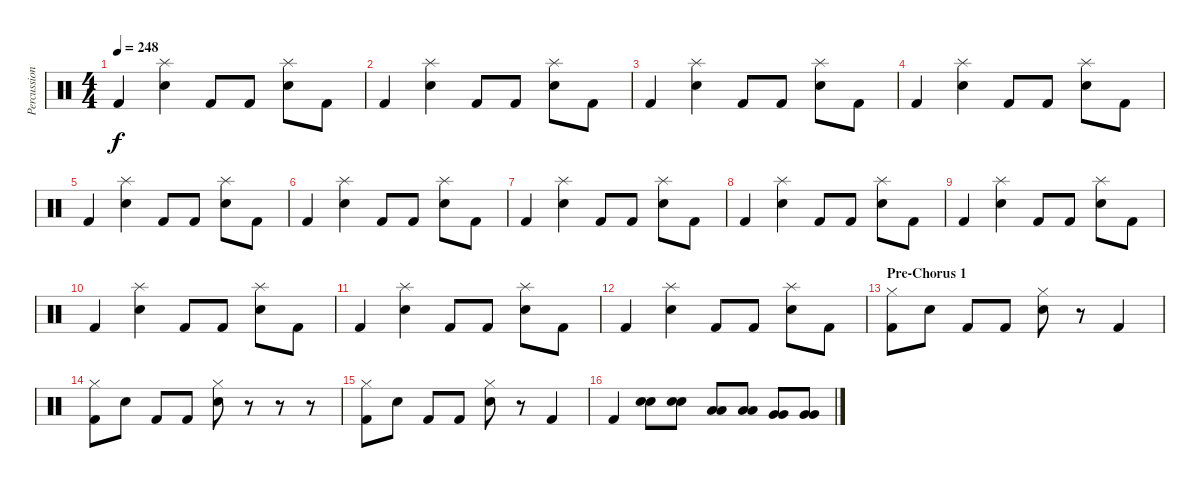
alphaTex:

\track ("Percussion" "Percussion") {instrument percussion}
\staff {score}
\articulation defaults
\ts (4 4)
\tempo 248
\clef neutral
\ks c "Kick (hit) 2".4{dy f}
("Splash (hit)" "Snare (hit) 2").4 "Kick (hit) 2".8 "Kick (hit) 2".8 ("Splash (hit)" "Snare (hit) 2").8 "Kick (hit) 2".8 |
"Kick (hit) 2".4 ("Splash (hit)" "Snare (hit) 2").4 "Kick (hit) 2".8 "Kick (hit) 2".8 ("Splash (hit)" "Snare (hit) 2").8 "Kick (hit) 2".8 |
"Kick (hit) 2".4 ("Splash (hit)" "Snare (hit) 2").4 "Kick (hit) 2".8 "Kick (hit) 2".8 ("Splash (hit)" "Snare (hit) 2").8 "Kick (hit) 2".8 |
"Kick (hit) 2".4 ("Splash (hit)" "Snare (hit) 2").4 "Kick (hit) 2".8 "Kick (hit) 2".8 ("Splash (hit)" "Snare (hit) 2").8 "Kick (hit) 2".8 |
"Kick (hit) 2".4 ("Splash (hit)" "Snare (hit) 2").4 "Kick (hit) 2".8 "Kick (hit) 2".8 ("Splash (hit)" "Snare (hit) 2").8 "Kick (hit) 2".8 |
"Kick (hit) 2".4 ("Splash (hit)" "Snare (hit) 2").4 "Kick (hit) 2".8 "Kick (hit) 2".8 ("Splash (hit)" "Snare (hit) 2").8 "Kick (hit) 2".8 |
"Kick (hit) 2".4 ("Splash (hit)" "Snare (hit) 2").4 "Kick (hit) 2".8 "Kick (hit) 2".8 ("Splash (hit)" "Snare (hit) 2").8 "Kick (hit) 2".8 |
"Kick (hit) 2".4 ("Splash (hit)" "Snare (hit) 2").4 "Kick (hit) 2".8 "Kick (hit) 2".8 ("Splash (hit)" "Snare (hit) 2").8 "Kick (hit) 2".8 |
"Kick (hit) 2".4 ("Splash (hit)" "Snare (hit) 2").4 "Kick (hit) 2".8 "Kick (hit) 2".8 ("Splash (hit)" "Snare (hit) 2").8 "Kick (hit) 2".8 |
"Kick (hit) 2".4 ("Splash (hit)" "Snare (hit) 2").4 "Kick (hit) 2".8 "Kick (hit) 2".8 ("Splash (hit)" "Snare (hit) 2").8 "Kick (hit) 2".8 |
"Kick (hit) 2".4 ("Splash (hit)" "Snare (hit) 2").4 "Kick (hit) 2".8 "Kick (hit) 2".8 ("Splash (hit)" "Snare (hit) 2").8 "Kick (hit) 2".8 |
"Kick (hit) 2".4 ("Splash (hit)" "Snare (hit) 2").4 "Kick (hit) 2".8 "Kick (hit) 2".8 ("Splash (hit)" "Snare (hit) 2").8 "Kick (hit) 2".8 |
\section ("" "Pre-Chorus 1")
("Hi-Hat (closed)" "Kick (hit) 2").8 "Snare (hit) 2".8 "Kick (hit) 2".8 "Kick (hit) 2".8 ("Hi-Hat (closed)" "Snare (hit) 2").8 r.8 "Kick (hit) 2".4 |
("Hi-Hat (closed)" "Kick (hit) 2").8 "Snare (hit) 2".8 "Kick (hit) 2".8 "Kick (hit) 2".8 ("Hi-Hat (closed)" "Snare (hit) 2").8 r.8 r.8 r.8 |
("Hi-Hat (closed)" "Kick (hit) 2").8 "Snare (hit) 2".8 "Kick (hit) 2".8 "Kick (hit) 2".8 ("Hi-Hat (closed)" "Snare (hit) 2").8 r.8 "Kick (hit) 2".4 |
"Kick (hit) 2".4 ("Snare (hit) 2" "Snare (hit) 2").8 ("Snare (hit) 2" "Snare (hit) 2").8 ("Low Tom (hit)" "Low Tom (hit)").8 ("Low Tom (hit)" "Low Tom (hit)").8 ("Very Low Tom (hit)" "Very Low Tom (hit)").8 ("Very Low Tom (hit)" "Very Low Tom (hit)").8
